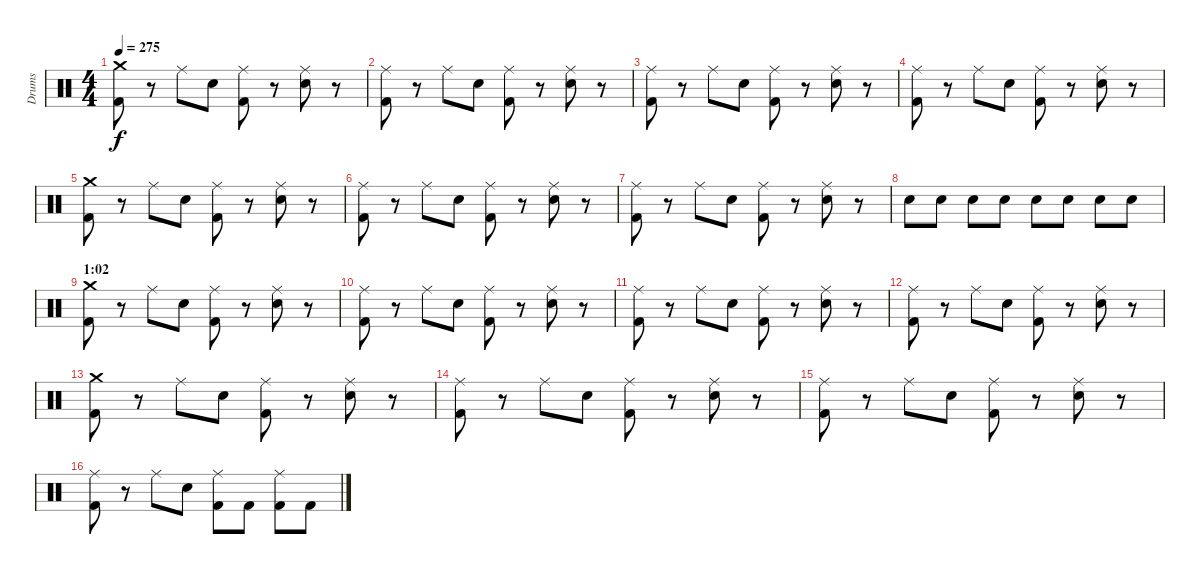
\track ("Drums" "Drums") {instrument percussion}
\staff {score}
\articulation defaults
\ts (4 4)
\tempo 275
\clef neutral
\ks c
("Crash medium (hit)" "Kick (hit) 2").8{dy f} r.8 "Ride (middle)".8 "Electric Snare (hit)".8 ("Ride (middle)" "Kick (hit) 2").8 r.8 ("Ride (middle)" "Electric Snare (hit)").8 r.8 |
("Ride (middle)" "Kick (hit) 2").8 r.8 "Ride (middle)".8 "Electric Snare (hit)".8 ("Ride (middle)" "Kick (hit) 2").8 r.8 ("Ride (middle)" "Electric Snare (hit)").8 r.8 |
("Ride (middle)" "Kick (hit) 2").8 r.8 "Ride (middle)".8 "Electric Snare (hit)".8 ("Ride (middle)" "Kick (hit) 2").8 r.8 ("Ride (middle)" "Electric Snare (hit)").8 r.8 |
("Ride (middle)" "Kick (hit) 2").8 r.8 "Ride (middle)".8 "Electric Snare (hit)".8 ("Ride (middle)" "Kick (hit) 2").8 r.8 ("Ride (middle)" "Electric Snare (hit)").8 r.8 |
("Crash medium (hit)" "Kick (hit) 2").8 r.8 "Ride (middle)".8 "Electric Snare (hit)".8 ("Ride (middle)" "Kick (hit) 2").8 r.8 ("Ride (middle)" "Electric Snare (hit)").8 r.8 |
("Ride (middle)" "Kick (hit) 2").8 r.8 "Ride (middle)".8 "Electric Snare (hit)".8 ("Ride (middle)" "Kick (hit) 2").8 r.8 ("Ride (middle)" "Electric Snare (hit)").8 r.8 |
("Ride (middle)" "Kick (hit) 2").8 r.8 "Ride (middle)".8 "Electric Snare (hit)".8 ("Ride (middle)" "Kick (hit) 2").8 r.8 ("Ride (middle)" "Electric Snare (hit)").8 r.8 |
"Electric Snare (hit)".8 "Electric Snare (hit)".8 "Electric Snare (hit)".8 "Electric Snare (hit)".8 "Electric Snare (hit)".8 "Electric Snare (hit)".8 "Electric Snare (hit)".8 "Electric Snare (hit)".8 |
\section ("" "1:02")
("Crash medium (hit)" "Kick (hit) 2").8 r.8 "Ride (middle)".8 "Electric Snare (hit)".8 ("Ride (middle)" "Kick (hit) 2").8 r.8 ("Ride (middle)" "Electric Snare (hit)").8 r.8 |
("Ride (middle)" "Kick (hit) 2").8 r.8 "Ride (middle)".8 "Electric Snare (hit)".8 ("Ride (middle)" "Kick (hit) 2").8 r.8 ("Ride (middle)" "Electric Snare (hit)").8 r.8 |
("Ride (middle)" "Kick (hit) 2").8 r.8 "Ride (middle)".8 "Electric Snare (hit)".8 ("Ride (middle)" "Kick (hit) 2").8 r.8 ("Ride (middle)" "Electric Snare (hit)").8 r.8 |
("Ride (middle)" "Kick (hit) 2").8 r.8 "Ride (middle)".8 "Electric Snare (hit)".8 ("Ride (middle)" "Kick (hit) 2").8 r.8 ("Ride (middle)" "Electric Snare (hit)").8 r.8 |
("Crash medium (hit)" "Kick (hit) 2").8 r.8 "Ride (middle)".8 "Electric Snare (hit)".8 ("Ride (middle)" "Kick (hit) 2").8 r.8 ("Ride (middle)" "Electric Snare (hit)").8 r.8 |
("Ride (middle)" "Kick (hit) 2").8 r.8 "Ride (middle)".8 "Electric Snare (hit)".8 ("Ride (middle)" "Kick (hit) 2").8 r.8 ("Ride (middle)" "Electric Snare (hit)").8 r.8 |
("Ride (middle)" "Kick (hit) 2").8 r.8 "Ride (middle)".8 "Electric Snare (hit)".8 ("Ride (middle)" "Kick (hit) 2").8 r.8 ("Ride (middle)" "Electric Snare (hit)").8 r.8 |
("Ride (middle)" "Kick (hit) 2").8 r.8 "Ride (middle)".8 "Electric Snare (hit)".8 ("Ride (middle)" "Kick (hit) 2").8 "Kick (hit) 2".8 ("Ride (middle)" "Kick (hit) 2").8 "Kick (hit) 2".8
